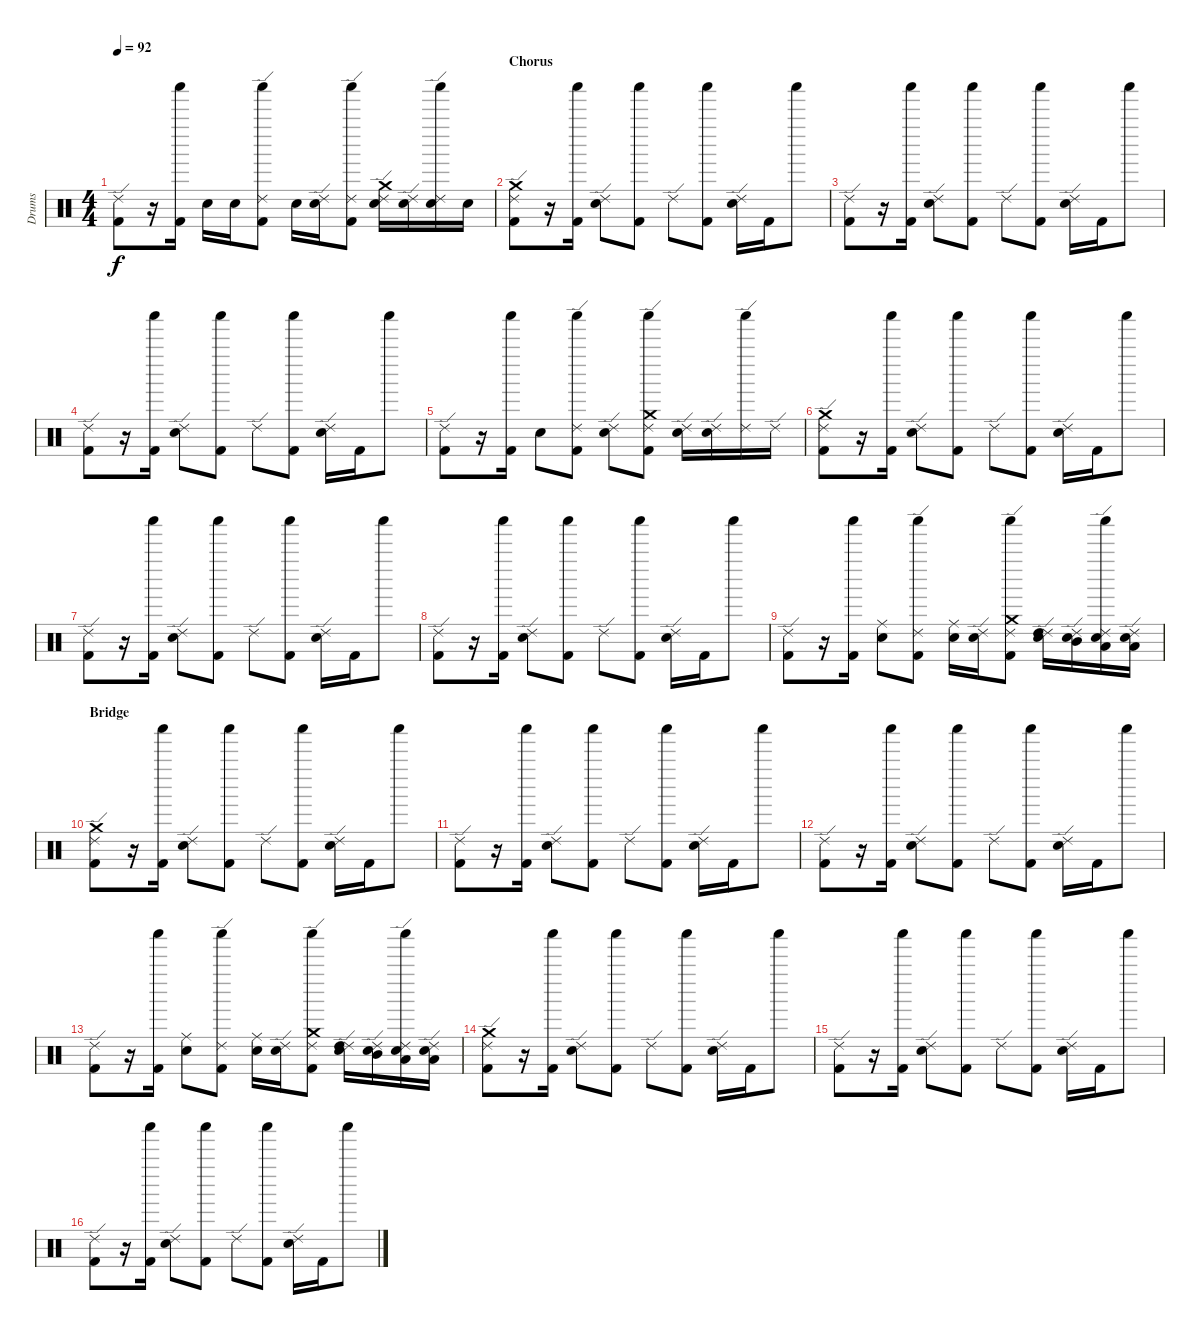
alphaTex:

\track ("Drums" "Drums") {instrument percussion}
\staff {score}
\articulation defaults
\ts (4 4)
\tempo 92
\clef neutral
\ks c
("Ride (edge) 2" "Kick (hit) 2").8{dy f} r.16 ("Shaker (hit)" "Kick (hit) 2").16 "Electric Snare (hit)".16 "Electric Snare (hit)".16 ("Ride (edge) 2" "Shaker (hit)" "Kick (hit) 2").8 "Electric Snare (hit)".16 ("Ride (edge) 2" "Electric Snare (hit)").16 ("Ride (edge) 2" "Shaker (hit)" "Kick (hit) 2").8 ("Ride (edge) 2" "Crash medium (hit)" "Electric Snare (hit)").16 ("Ride (edge) 2" "Electric Snare (hit)").16 ("Ride (edge) 2" "Shaker (hit)" "Electric Snare (hit)").16 "Electric Snare (hit)".16 |
\section ("" "Chorus")
("Ride (edge) 2" "Crash medium (hit)" "Kick (hit) 2").8 r.16 ("Shaker (hit)" "Kick (hit) 2").16 ("Ride (edge) 2" "Electric Snare (hit)").8 ("Shaker (hit)" "Kick (hit) 2").8 "Ride (edge) 2".8 ("Shaker (hit)" "Kick (hit) 2").8 ("Ride (edge) 2" "Electric Snare (hit)").16 "Kick (hit) 2".16 "Shaker (hit)".8 |
("Ride (edge) 2" "Kick (hit) 2").8 r.16 ("Shaker (hit)" "Kick (hit) 2").16 ("Ride (edge) 2" "Electric Snare (hit)").8 ("Shaker (hit)" "Kick (hit) 2").8 "Ride (edge) 2".8 ("Shaker (hit)" "Kick (hit) 2").8 ("Ride (edge) 2" "Electric Snare (hit)").16 "Kick (hit) 2".16 "Shaker (hit)".8 |
("Ride (edge) 2" "Kick (hit) 2").8 r.16 ("Shaker (hit)" "Kick (hit) 2").16 ("Ride (edge) 2" "Electric Snare (hit)").8 ("Shaker (hit)" "Kick (hit) 2").8 "Ride (edge) 2".8 ("Shaker (hit)" "Kick (hit) 2").8 ("Ride (edge) 2" "Electric Snare (hit)").16 "Kick (hit) 2".16 "Shaker (hit)".8 |
("Ride (edge) 2" "Kick (hit) 2").8 r.16 ("Shaker (hit)" "Kick (hit) 2").16 "Electric Snare (hit)".8 ("Ride (edge) 2" "Shaker (hit)" "Kick (hit) 2").8 ("Ride (edge) 2" "Electric Snare (hit)").8 ("Ride (edge) 2" "Crash medium (hit)" "Shaker (hit)" "Kick (hit) 2").8 ("Ride (edge) 2" "Electric Snare (hit)").16 ("Ride (edge) 2" "Electric Snare (hit)").16 ("Ride (edge) 2" "Shaker (hit)").16 "Ride (edge) 2".16 |
("Ride (edge) 2" "Crash medium (hit)" "Kick (hit) 2").8 r.16 ("Shaker (hit)" "Kick (hit) 2").16 ("Ride (edge) 2" "Electric Snare (hit)").8 ("Shaker (hit)" "Kick (hit) 2").8 "Ride (edge) 2".8 ("Shaker (hit)" "Kick (hit) 2").8 ("Ride (edge) 2" "Electric Snare (hit)").16 "Kick (hit) 2".16 "Shaker (hit)".8 |
("Ride (edge) 2" "Kick (hit) 2").8 r.16 ("Shaker (hit)" "Kick (hit) 2").16 ("Ride (edge) 2" "Electric Snare (hit)").8 ("Shaker (hit)" "Kick (hit) 2").8 "Ride (edge) 2".8 ("Shaker (hit)" "Kick (hit) 2").8 ("Ride (edge) 2" "Electric Snare (hit)").16 "Kick (hit) 2".16 "Shaker (hit)".8 |
("Ride (edge) 2" "Kick (hit) 2").8 r.16 ("Shaker (hit)" "Kick (hit) 2").16 ("Ride (edge) 2" "Electric Snare (hit)").8 ("Shaker (hit)" "Kick (hit) 2").8 "Ride (edge) 2".8 ("Shaker (hit)" "Kick (hit) 2").8 ("Ride (edge) 2" "Electric Snare (hit)").16 "Kick (hit) 2".16 "Shaker (hit)".8 |
("Ride (edge) 2" "Kick (hit) 2").8 r.16 ("Shaker (hit)" "Kick (hit) 2").16 ("Ride (middle)" "Electric Snare (hit)").8 ("Ride (edge) 2" "Shaker (hit)" "Kick (hit) 2").8 ("Ride (middle)" "Electric Snare (hit)").16 ("Ride (edge) 2" "Electric Snare (hit)").16 ("Ride (edge) 2" "Crash medium (hit)" "Shaker (hit)" "Kick (hit) 2").8 ("Ride (edge) 2" "High Tom (hit)" "Electric Snare (hit)").16 ("Ride (edge) 2" "Mid Tom (hit)" "Electric Snare (hit)").16 ("Ride (edge) 2" "Shaker (hit)" "Low Tom (hit)" "Electric Snare (hit)").16 ("Ride (edge) 2" "Low Tom (hit)" "Electric Snare (hit)").16 |
\section ("" "Bridge")
("Ride (edge) 2" "Crash medium (hit)" "Kick (hit) 2").8 r.16 ("Shaker (hit)" "Kick (hit) 2").16 ("Ride (edge) 2" "Electric Snare (hit)").8 ("Shaker (hit)" "Kick (hit) 2").8 "Ride (edge) 2".8 ("Shaker (hit)" "Kick (hit) 2").8 ("Ride (edge) 2" "Electric Snare (hit)").16 "Kick (hit) 2".16 "Shaker (hit)".8 |
("Ride (edge) 2" "Kick (hit) 2").8 r.16 ("Shaker (hit)" "Kick (hit) 2").16 ("Ride (edge) 2" "Electric Snare (hit)").8 ("Shaker (hit)" "Kick (hit) 2").8 "Ride (edge) 2".8 ("Shaker (hit)" "Kick (hit) 2").8 ("Ride (edge) 2" "Electric Snare (hit)").16 "Kick (hit) 2".16 "Shaker (hit)".8 |
("Ride (edge) 2" "Kick (hit) 2").8 r.16 ("Shaker (hit)" "Kick (hit) 2").16 ("Ride (edge) 2" "Electric Snare (hit)").8 ("Shaker (hit)" "Kick (hit) 2").8 "Ride (edge) 2".8 ("Shaker (hit)" "Kick (hit) 2").8 ("Ride (edge) 2" "Electric Snare (hit)").16 "Kick (hit) 2".16 "Shaker (hit)".8 |
("Ride (edge) 2" "Kick (hit) 2").8 r.16 ("Shaker (hit)" "Kick (hit) 2").16 ("Ride (middle)" "Electric Snare (hit)").8 ("Ride (edge) 2" "Shaker (hit)" "Kick (hit) 2").8 ("Ride (middle)" "Electric Snare (hit)").16 ("Ride (edge) 2" "Electric Snare (hit)").16 ("Ride (edge) 2" "Crash medium (hit)" "Shaker (hit)" "Kick (hit) 2").8 ("Ride (edge) 2" "High Tom (hit)" "Electric Snare (hit)").16 ("Ride (edge) 2" "Mid Tom (hit)" "Electric Snare (hit)").16 ("Ride (edge) 2" "Shaker (hit)" "Low Tom (hit)" "Electric Snare (hit)").16 ("Ride (edge) 2" "Low Tom (hit)" "Electric Snare (hit)").16 |
("Ride (edge) 2" "Crash medium (hit)" "Kick (hit) 2").8 r.16 ("Shaker (hit)" "Kick (hit) 2").16 ("Ride (edge) 2" "Electric Snare (hit)").8 ("Shaker (hit)" "Kick (hit) 2").8 "Ride (edge) 2".8 ("Shaker (hit)" "Kick (hit) 2").8 ("Ride (edge) 2" "Electric Snare (hit)").16 "Kick (hit) 2".16 "Shaker (hit)".8 |
("Ride (edge) 2" "Kick (hit) 2").8 r.16 ("Shaker (hit)" "Kick (hit) 2").16 ("Ride (edge) 2" "Electric Snare (hit)").8 ("Shaker (hit)" "Kick (hit) 2").8 "Ride (edge) 2".8 ("Shaker (hit)" "Kick (hit) 2").8 ("Ride (edge) 2" "Electric Snare (hit)").16 "Kick (hit) 2".16 "Shaker (hit)".8 |
("Ride (edge) 2" "Kick (hit) 2").8 r.16 ("Shaker (hit)" "Kick (hit) 2").16 ("Ride (edge) 2" "Electric Snare (hit)").8 ("Shaker (hit)" "Kick (hit) 2").8 "Ride (edge) 2".8 ("Shaker (hit)" "Kick (hit) 2").8 ("Ride (edge) 2" "Electric Snare (hit)").16 "Kick (hit) 2".16 "Shaker (hit)".8
